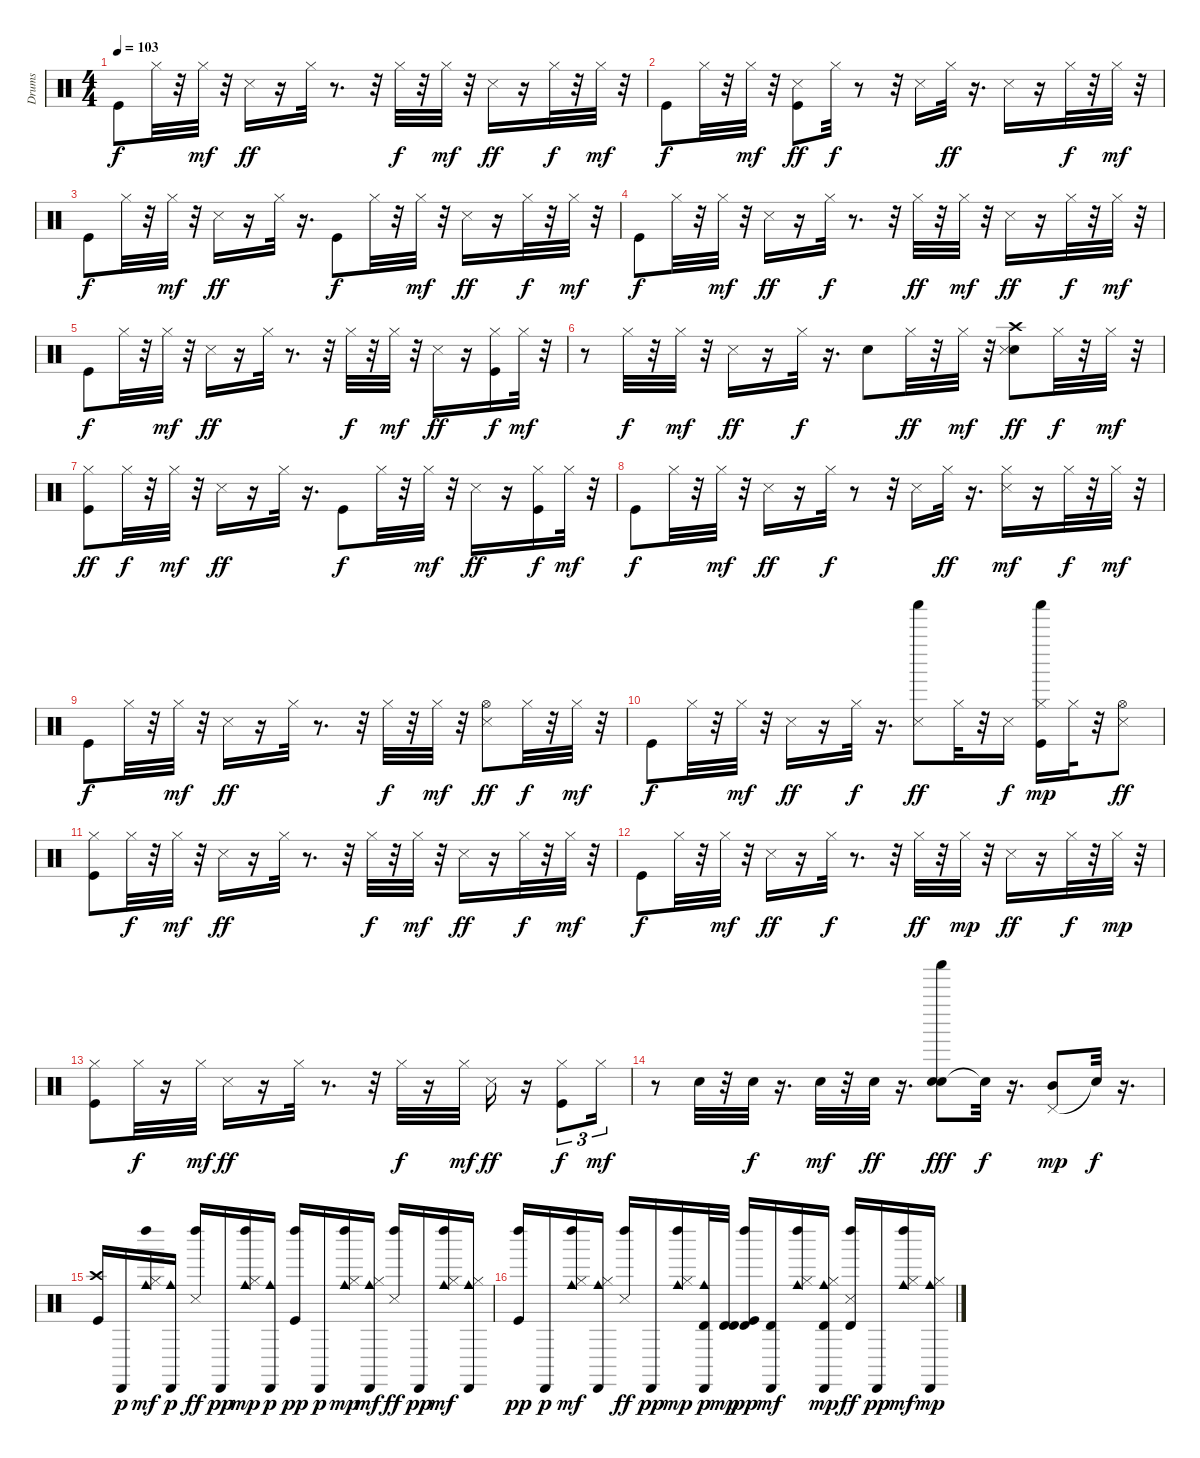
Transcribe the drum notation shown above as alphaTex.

\track ("Drums" "Drums") {instrument percussion}
\staff {score}
\articulation defaults
\ts (4 4)
\tempo 103
\clef neutral
\ks c "Kick (hit)".8{dy f} "Hi-Hat (closed)".32
r.32 "Hi-Hat (closed)".32{dy mf} r.32 "Snare (side stick) 3".16{dy ff} r.16 "Hi-Hat (closed)".32 r.8{d} r.32 "Hi-Hat (closed)".32{dy f} r.32 "Hi-Hat (closed)".32{dy mf} r.32 "Snare (side stick) 3".16{dy ff} r.16 "Hi-Hat (closed)".32{dy f} r.32 "Hi-Hat (closed)".32{dy mf} r.32 |
"Kick (hit)".8{dy f} "Hi-Hat (closed)".32 r.32 "Hi-Hat (closed)".32{dy mf} r.32 ("Kick (hit)" "Snare (side stick) 3").8{dy ff} "Hi-Hat (closed)".32{dy f} r.8 r.32 "Snare (side stick) 3".16 "Hi-Hat (closed)".32{dy ff} r.16{d} "Snare (side stick) 3".16 r.16 "Hi-Hat (closed)".32{dy f} r.32 "Hi-Hat (closed)".32{dy mf} r.32 |
"Kick (hit)".8{dy f} "Hi-Hat (closed)".32 r.32 "Hi-Hat (closed)".32{dy mf} r.32 "Snare (side stick) 3".16{dy ff} r.16 "Hi-Hat (closed)".32 r.16{d} "Kick (hit)".8{dy f} "Hi-Hat (closed)".32 r.32 "Hi-Hat (closed)".32{dy mf} r.32 "Snare (side stick) 3".16{dy ff} r.16 "Hi-Hat (closed)".32{dy f} r.32 "Hi-Hat (closed)".32{dy mf} r.32 |
"Kick (hit)".8{dy f} "Hi-Hat (closed)".32 r.32 "Hi-Hat (closed)".32{dy mf} r.32 "Snare (side stick) 3".16{dy ff} r.16 "Hi-Hat (closed)".32{dy f} r.8{d} r.32 "Hi-Hat (closed)".32{dy ff} r.32 "Hi-Hat (closed)".32{dy mf} r.32 "Snare (side stick) 3".16{dy ff} r.16 "Hi-Hat (closed)".32{dy f} r.32 "Hi-Hat (closed)".32{dy mf} r.32 |
"Kick (hit)".8{dy f} "Hi-Hat (closed)".32 r.32 "Hi-Hat (closed)".32{dy mf} r.32 "Snare (side stick) 3".16{dy ff} r.16 "Hi-Hat (closed)".32 r.8{d} r.32 "Hi-Hat (closed)".32{dy f} r.32 "Hi-Hat (closed)".32{dy mf} r.32 "Snare (side stick) 3".16{dy ff} r.16 ("Kick (hit)" "Hi-Hat (closed)").16{dy f} "Hi-Hat (closed)".32{dy mf} r.32 |
r.8 "Hi-Hat (closed)".32{dy f} r.32 "Hi-Hat (closed)".32{dy mf} r.32 "Snare (side stick) 3".16{dy ff} r.16 "Hi-Hat (closed)".32{dy f} r.16{d} "Snare (hit) 2".8 "Hi-Hat (closed)".32{dy ff} r.32 "Hi-Hat (closed)".32{dy mf} r.32 ("Crash high (hit)" "Electric Snare (hit)" "Snare (side stick) 3").8{dy ff} "Hi-Hat (closed)".32{dy f} r.32 "Hi-Hat (closed)".32{dy mf} r.32 |
("Kick (hit)" "Hi-Hat (closed)").8{dy ff} "Hi-Hat (closed)".32{dy f} r.32 "Hi-Hat (closed)".32{dy mf} r.32 "Snare (side stick) 3".16{dy ff} r.16 "Hi-Hat (closed)".32 r.16{d} "Kick (hit)".8{dy f} "Hi-Hat (closed)".32 r.32 "Hi-Hat (closed)".32{dy mf} r.32 "Snare (side stick) 3".16{dy ff} r.16 ("Kick (hit)" "Hi-Hat (closed)").16{dy f} "Hi-Hat (closed)".32{dy mf} r.32 |
"Kick (hit)".8{dy f} "Hi-Hat (closed)".32 r.32 "Hi-Hat (closed)".32{dy mf} r.32 "Snare (side stick) 3".16{dy ff} r.16 "Hi-Hat (closed)".32{dy f} r.8 r.32 "Snare (side stick) 3".16 "Hi-Hat (closed)".32{dy ff} r.16{d} ("Snare (side stick) 3" "Hi-Hat (closed)").16{dy mf} r.16 "Hi-Hat (closed)".32{dy f} r.32 "Hi-Hat (closed)".32{dy mf} r.32 |
"Kick (hit)".8{dy f} "Hi-Hat (closed)".32 r.32 "Hi-Hat (closed)".32{dy mf} r.32 "Snare (side stick) 3".16{dy ff} r.16 "Hi-Hat (closed)".32 r.8{d} r.32 "Hi-Hat (closed)".32{dy f} r.32 "Hi-Hat (closed)".32{dy mf} r.32 ("Hi-Hat (open)" "Snare (side stick) 3").8{dy ff} "Hi-Hat (closed)".32{dy f} r.32 "Hi-Hat (closed)".32{dy mf} r.32 |
"Kick (hit)".8{dy f} "Hi-Hat (closed)".32 r.32 "Hi-Hat (closed)".32{dy mf} r.32 "Snare (side stick) 3".16{dy ff} r.16 "Hi-Hat (closed)".32{dy f} r.16{d} ("Shaker (hit)" "Snare (side stick) 3").8{dy ff} "Hi-Hat (closed)".32 r.32 "Snare (side stick) 3".16{dy f} ("Kick (hit)" "Hi-Hat (closed)" "Shaker (hit)").16{dy mp} "Hi-Hat (closed)".32 r.32 ("Hi-Hat (open)" "Snare (side stick) 3").8{dy ff} |
("Kick (hit)" "Hi-Hat (closed)").8 "Hi-Hat (closed)".32{dy f} r.32 "Hi-Hat (closed)".32{dy mf} r.32 "Snare (side stick) 3".16{dy ff} r.16 "Hi-Hat (closed)".32 r.8{d} r.32 "Hi-Hat (closed)".32{dy f} r.32 "Hi-Hat (closed)".32{dy mf} r.32 "Snare (side stick) 3".16{dy ff} r.16 "Hi-Hat (closed)".32{dy f} r.32 "Hi-Hat (closed)".32{dy mf} r.32 |
"Kick (hit)".8{dy f} "Hi-Hat (closed)".32 r.32 "Hi-Hat (closed)".32{dy mf} r.32 "Snare (side stick) 3".16{dy ff} r.16 "Hi-Hat (closed)".32{dy f} r.8{d} r.32 "Hi-Hat (closed)".32{dy ff} r.32 "Hi-Hat (closed)".32{dy mp} r.32 "Snare (side stick) 3".16{dy ff} r.16 "Hi-Hat (closed)".32{dy f} r.32 "Hi-Hat (closed)".32{dy mp} r.32 |
("Kick (hit)" "Hi-Hat (closed)").8 "Hi-Hat (closed)".32{dy f} r.16 "Hi-Hat (closed)".32{dy mf} "Snare (side stick) 3".16{dy ff} r.16 "Hi-Hat (closed)".32 r.8{d} r.32 "Hi-Hat (closed)".32{dy f} r.16 "Hi-Hat (closed)".32{dy mf} "Snare (side stick) 3".16{dy ff} r.16 ("Kick (hit)" "Hi-Hat (closed)").8{tu (3 2) dy f} "Hi-Hat (closed)".16{tu (3 2) dy mf} |
r.8 "Electric Snare (hit)".32 r.32 "Electric Snare (hit)".32{dy f} r.16{d} "Electric Snare (hit)".32{dy mf} r.32 "Electric Snare (hit)".32{dy ff} r.16{d} ("Electric Snare (hit)" "Shaker (hit)" "Electric Snare (hit)").8{dy fff} "Snare (hit)"{t}.32{dy f} r.16{d} ("Pedal Hi-Hat (hit)" "Mid Tom (hit)").8{dy mp} "Snare (hit)"{t}.32{dy f} r.16{d} |
("Crash high (hit)" "Kick (hit)").16 "Cabasa (hit)".16{dy p} ("Left Maraca (hit)" "Hi-Hat (closed)" "Cowbell medium (hit)").16{dy mf} ("Cowbell medium (hit)" "Cabasa (hit)").16{dy p} ("Left Maraca (hit)" "Snare (side stick) 3").16{dy ff} "Cabasa (hit)".16{dy pp} ("Left Maraca (hit)" "Hi-Hat (closed)" "Cowbell medium (hit)").16{dy mp} ("Cowbell medium (hit)" "Cabasa (hit)").16{dy p} ("Left Maraca (hit)" "Kick (hit)").16{dy pp} "Cabasa (hit)".16{dy p} ("Left Maraca (hit)" "Hi-Hat (closed)" "Cowbell medium (hit)").16{dy mp} ("Cowbell medium (hit)" "Cabasa (hit)" "Hi-Hat (closed)").16{dy mf} ("Left Maraca (hit)" "Snare (side stick) 3").16{dy ff} "Cabasa (hit)".16{dy pp} ("Left Maraca (hit)" "Hi-Hat (closed)" "Cowbell medium (hit)").16{dy mf} ("Cowbell medium (hit)" "Cabasa (hit)" "Hi-Hat (closed)").16 |
("Left Maraca (hit)" "Kick (hit)").16{dy pp} "Cabasa (hit)".16{dy p} ("Left Maraca (hit)" "Hi-Hat (closed)" "Cowbell medium (hit)").16{dy mf} ("Cowbell medium (hit)" "Cabasa (hit)" "Hi-Hat (closed)").16 ("Left Maraca (hit)" "Snare (side stick) 3").16{dy ff} "Cabasa (hit)".16{dy pp} ("Left Maraca (hit)" "Hi-Hat (closed)" "Cowbell medium (hit)").16{dy mp} ("Cowbell medium (hit)" "Cabasa (hit)" "Timbale high (hit)").32{dy p} ("Timbale high (hit)" "Timbale high (hit)").32{dy mp} ("Left Maraca (hit)" "Kick (hit)" "Timbale high (hit)").16{dy pp} ("Cabasa (hit)" "Timbale high (hit)").16{dy mf} ("Left Maraca (hit)" "Hi-Hat (closed)" "Cowbell medium (hit)").16 ("Cowbell medium (hit)" "Cabasa (hit)" "Timbale high (hit)" "Hi-Hat (closed)").16{dy mp} ("Left Maraca (hit)" "Snare (side stick) 3" "Timbale high (hit)").16{dy ff} "Cabasa (hit)".16{dy pp} ("Left Maraca (hit)" "Hi-Hat (closed)" "Cowbell medium (hit)").16{dy mf} ("Cowbell medium (hit)" "Cabasa (hit)" "Hi-Hat (closed)").16{dy mp}
